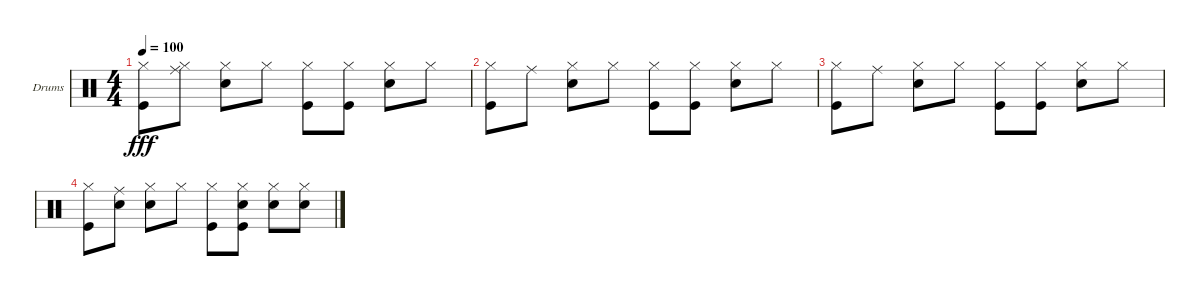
\defaultSystemsLayout 4
\bracketExtendMode groupsimilarinstruments
\firstSystemTrackNameOrientation horizontal
\otherSystemsTrackNameOrientation horizontal
\track ("Drumkit" "Drums") {instrument percussion}
\staff {score}
\articulation defaults
\ts (4 4)
\tempo 100
\clef neutral
\ks c
("Kick (hit)" "Hi-Hat (closed)").8{dy fff} ("Ride (middle)" "Hi-Hat (closed)").8 ("Snare (hit) 2" "Hi-Hat (closed)").8 "Hi-Hat (closed)".8 ("Kick (hit)" "Hi-Hat (closed)").8 ("Kick (hit)" "Hi-Hat (closed)").8 ("Snare (hit) 2" "Hi-Hat (closed)").8 "Hi-Hat (closed)".8 |
("Kick (hit)" "Hi-Hat (closed)").8 "Ride (middle)".8 ("Snare (hit) 2" "Hi-Hat (closed)").8 "Hi-Hat (closed)".8 ("Kick (hit)" "Hi-Hat (closed)").8 ("Kick (hit)" "Hi-Hat (closed)").8 ("Snare (hit) 2" "Hi-Hat (closed)").8 "Hi-Hat (closed)".8 |
("Kick (hit)" "Hi-Hat (closed)").8 "Ride (middle)".8 ("Snare (hit) 2" "Hi-Hat (closed)").8 "Hi-Hat (closed)".8 ("Kick (hit)" "Hi-Hat (closed)").8 ("Kick (hit)" "Hi-Hat (closed)").8 ("Snare (hit) 2" "Hi-Hat (closed)").8 "Hi-Hat (closed)".8 |
("Kick (hit)" "Hi-Hat (closed)").8 ("Ride (middle)" "Snare (hit) 2").8 ("Snare (hit) 2" "Hi-Hat (closed)").8 "Hi-Hat (closed)".8 ("Kick (hit)" "Hi-Hat (closed)").8 ("Kick (hit)" "Hi-Hat (closed)" "Snare (hit) 2").8 ("Snare (hit) 2" "Hi-Hat (closed)").8 ("Hi-Hat (closed)" "Snare (hit) 2").8
